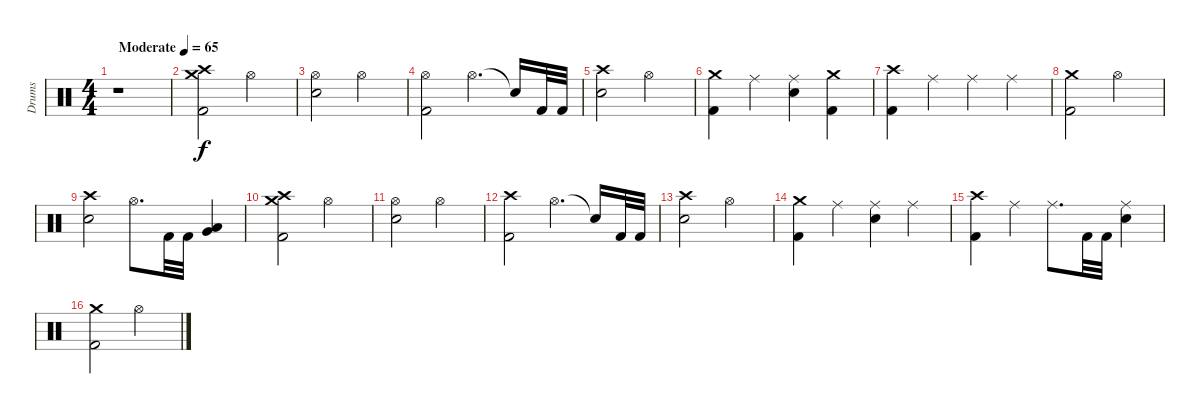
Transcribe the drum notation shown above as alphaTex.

\track ("Drums" "Drums") {instrument percussion}
\staff {score}
\articulation defaults
\ts (4 4)
\tempo (65 "Moderate")
\clef neutral
\ks c
r.1{dy f} |
("Crash high (hit)" "Crash medium (hit)" "Kick (hit) 2").2 "Hi-Hat (open)".2 |
("Hi-Hat (open)" "Snare (hit) 2").2 "Hi-Hat (open)".2 |
("Hi-Hat (open)" "Kick (hit) 2").2 "Hi-Hat (open)".4{d} "Snare (hit)"{t}.16 "Kick (hit) 2".32 "Kick (hit) 2".32 |
("Crash high (hit)" "Snare (hit) 2").2 "Hi-Hat (open)".2 |
("Crash medium (hit)" "Kick (hit) 2").4 "Ride (middle)".4 ("Ride (middle)" "Snare (hit) 2").4 ("Crash medium (hit)" "Kick (hit) 2").4 |
("Crash high (hit)" "Kick (hit) 2").4 "Ride (middle)".4 "Ride (middle)".4 "Ride (middle)".4 |
("Crash medium (hit)" "Kick (hit) 2").2 "Hi-Hat (open)".2 |
("Crash high (hit)" "Snare (hit) 2").2 "Hi-Hat (open)".8{d} "Kick (hit) 2".32 "Kick (hit) 2".32 ("Very Low Tom (hit)" "Low Tom (hit)").4 |
("Crash high (hit)" "Crash medium (hit)" "Kick (hit) 2").2 "Hi-Hat (open)".2 |
("Hi-Hat (open)" "Snare (hit) 2").2 "Hi-Hat (open)".2 |
("Crash high (hit)" "Kick (hit) 2").2 "Hi-Hat (open)".4{d} "Snare (hit)"{t}.16 "Kick (hit) 2".32 "Kick (hit) 2".32 |
("Crash high (hit)" "Snare (hit) 2").2 "Hi-Hat (open)".2 |
("Crash medium (hit)" "Kick (hit) 2").4 "Ride (middle)".4 ("Ride (middle)" "Snare (hit) 2").4 "Ride (middle)".4 |
("Crash high (hit)" "Kick (hit) 2").4 "Ride (middle)".4 "Ride (middle)".8{d} "Kick (hit) 2".32 "Kick (hit) 2".32 ("Ride (middle)" "Snare (hit) 2").4 |
("Crash medium (hit)" "Kick (hit) 2").2 "Hi-Hat (open)".2
